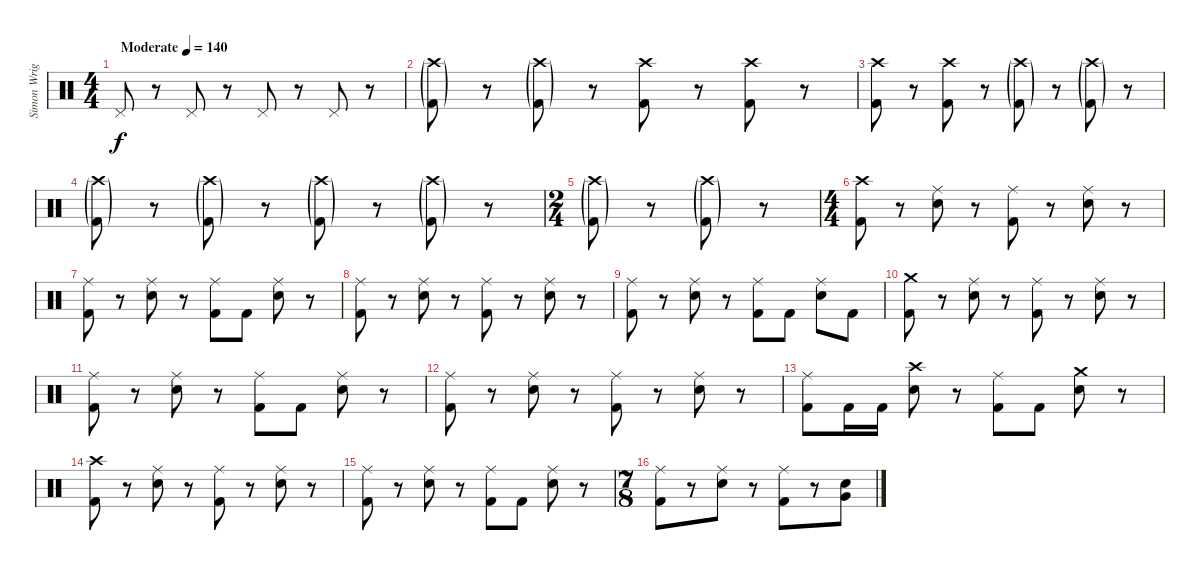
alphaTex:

\track ("Simon Wright" "Simon Wrig") {instrument percussion}
\staff {score}
\articulation defaults
\ts (4 4)
\tempo (140 "Moderate")
\clef neutral
\ks c "Pedal Hi-Hat (hit)".8{dy f}
r.8 "Pedal Hi-Hat (hit)".8 r.8 "Pedal Hi-Hat (hit)".8 r.8 "Pedal Hi-Hat (hit)".8 r.8 |
("Crash high (hit)"{g} "Kick (hit) 2"{g}).8 r.8 ("Crash high (hit)"{g} "Kick (hit) 2"{g}).8 r.8 ("Crash high (hit)" "Kick (hit) 2").8 r.8 ("Crash high (hit)" "Kick (hit) 2").8 r.8 |
("Crash high (hit)" "Kick (hit) 2").8 r.8 ("Crash high (hit)" "Kick (hit) 2").8 r.8 ("Crash high (hit)"{g} "Kick (hit) 2"{g}).8 r.8 ("Crash high (hit)"{g} "Kick (hit) 2"{g}).8 r.8 |
("Crash high (hit)"{g} "Kick (hit) 2"{g}).8 r.8 ("Crash high (hit)"{g} "Kick (hit) 2"{g}).8 r.8 ("Crash high (hit)"{g} "Kick (hit) 2"{g}).8 r.8 ("Crash high (hit)"{g} "Kick (hit) 2"{g}).8 r.8 |
\ts (2 4)
("Crash high (hit)"{g} "Kick (hit) 2"{g}).8 r.8 ("Crash high (hit)"{g} "Kick (hit) 2"{g}).8 r.8 |
\ts (4 4)
("Crash high (hit)" "Kick (hit) 2").8 r.8 ("Ride (middle)" "Snare (hit) 2").8 r.8 ("Ride (middle)" "Kick (hit) 2").8 r.8 ("Ride (middle)" "Snare (hit) 2").8 r.8 |
("Ride (middle)" "Kick (hit) 2").8 r.8 ("Ride (middle)" "Snare (hit) 2").8 r.8 ("Ride (middle)" "Kick (hit) 2").8 "Kick (hit) 2".8 ("Ride (middle)" "Snare (hit) 2").8 r.8 |
("Ride (middle)" "Kick (hit) 2").8 r.8 ("Ride (middle)" "Snare (hit) 2").8 r.8 ("Ride (middle)" "Kick (hit) 2").8 r.8 ("Ride (middle)" "Snare (hit) 2").8 r.8 |
("Ride (middle)" "Kick (hit) 2").8 r.8 ("Ride (middle)" "Snare (hit) 2").8 r.8 ("Ride (middle)" "Kick (hit) 2").8 "Kick (hit) 2".8 ("Ride (middle)" "Snare (hit) 2").8 "Kick (hit) 2".8 |
("Crash medium (hit)" "Kick (hit) 2").8 r.8 ("Ride (middle)" "Snare (hit) 2").8 r.8 ("Ride (middle)" "Kick (hit) 2").8 r.8 ("Ride (middle)" "Snare (hit) 2").8 r.8 |
("Ride (middle)" "Kick (hit) 2").8 r.8 ("Ride (middle)" "Snare (hit) 2").8 r.8 ("Ride (middle)" "Kick (hit) 2").8 "Kick (hit) 2".8 ("Ride (middle)" "Snare (hit) 2").8 r.8 |
("Ride (middle)" "Kick (hit) 2").8 r.8 ("Ride (middle)" "Snare (hit) 2").8 r.8 ("Ride (middle)" "Kick (hit) 2").8 r.8 ("Ride (middle)" "Snare (hit) 2").8 r.8 |
("Ride (middle)" "Kick (hit) 2").8 "Kick (hit) 2".16 "Kick (hit) 2".16 ("Crash high (hit)" "Snare (hit) 2").8 r.8 ("Ride (middle)" "Kick (hit) 2").8 "Kick (hit) 2".8 ("Crash medium (hit)" "Snare (hit) 2").8 r.8 |
("Crash high (hit)" "Kick (hit) 2").8 r.8 ("Ride (middle)" "Snare (hit) 2").8 r.8 ("Ride (middle)" "Kick (hit) 2").8 r.8 ("Ride (middle)" "Snare (hit) 2").8 r.8 |
("Ride (middle)" "Kick (hit) 2").8 r.8 ("Ride (middle)" "Snare (hit) 2").8 r.8 ("Ride (middle)" "Kick (hit) 2").8 "Kick (hit) 2".8 ("Ride (middle)" "Snare (hit) 2").8 r.8 |
\ts (7 8)
("Ride (middle)" "Kick (hit) 2").8 r.8 ("Ride (middle)" "Snare (hit) 2").8 r.8 ("Ride (middle)" "Kick (hit) 2").8 r.8 ("Very Low Tom (hit)" "Snare (hit) 2").8
